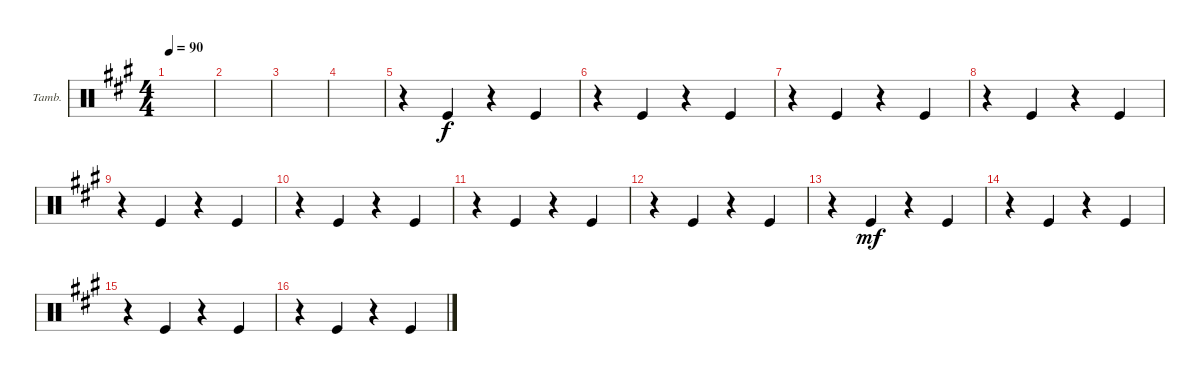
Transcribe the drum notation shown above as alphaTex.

\bracketExtendMode groupsimilarinstruments
\firstSystemTrackNameOrientation horizontal
\otherSystemsTrackNameOrientation horizontal
\track ("Tambourine" "Tamb.") {instrument percussion}
\staff {score}
\articulation defaults
\ts (4 4)
\tempo 90
\clef neutral
\scale
0.529412
\ks f#minor
|
\scale
0.235294 |
\scale
0.235294 |
\scale
0.333333 |
\scale
0.333333 r.4 "Kick (hit)".4 r.4 "Kick (hit)".4 |
\scale
0.333333 r.4 "Kick (hit)".4 r.4 "Kick (hit)".4 |
\scale
0.333333 r.4 "Kick (hit)".4 r.4 "Kick (hit)".4 |
\scale
0.333333 r.4 "Kick (hit)".4 r.4 "Kick (hit)".4 |
\scale
0.333333 r.4 "Kick (hit)".4 r.4 "Kick (hit)".4 |
\scale
0.333333 r.4 "Kick (hit)".4 r.4 "Kick (hit)".4 |
\scale
0.333333 r.4 "Kick (hit)".4 r.4 "Kick (hit)".4 |
\scale
0.333333 r.4 "Kick (hit)".4 r.4 "Kick (hit)".4 |
\scale
0.333333 r.4 "Kick (hit)".4{dy mf} r.4 "Kick (hit)".4 |
\scale
0.333333 r.4 "Kick (hit)".4 r.4 "Kick (hit)".4 |
\scale
0.333333 r.4 "Kick (hit)".4 r.4 "Kick (hit)".4 |
\scale
0.333333 r.4 "Kick (hit)".4 r.4 "Kick (hit)".4
